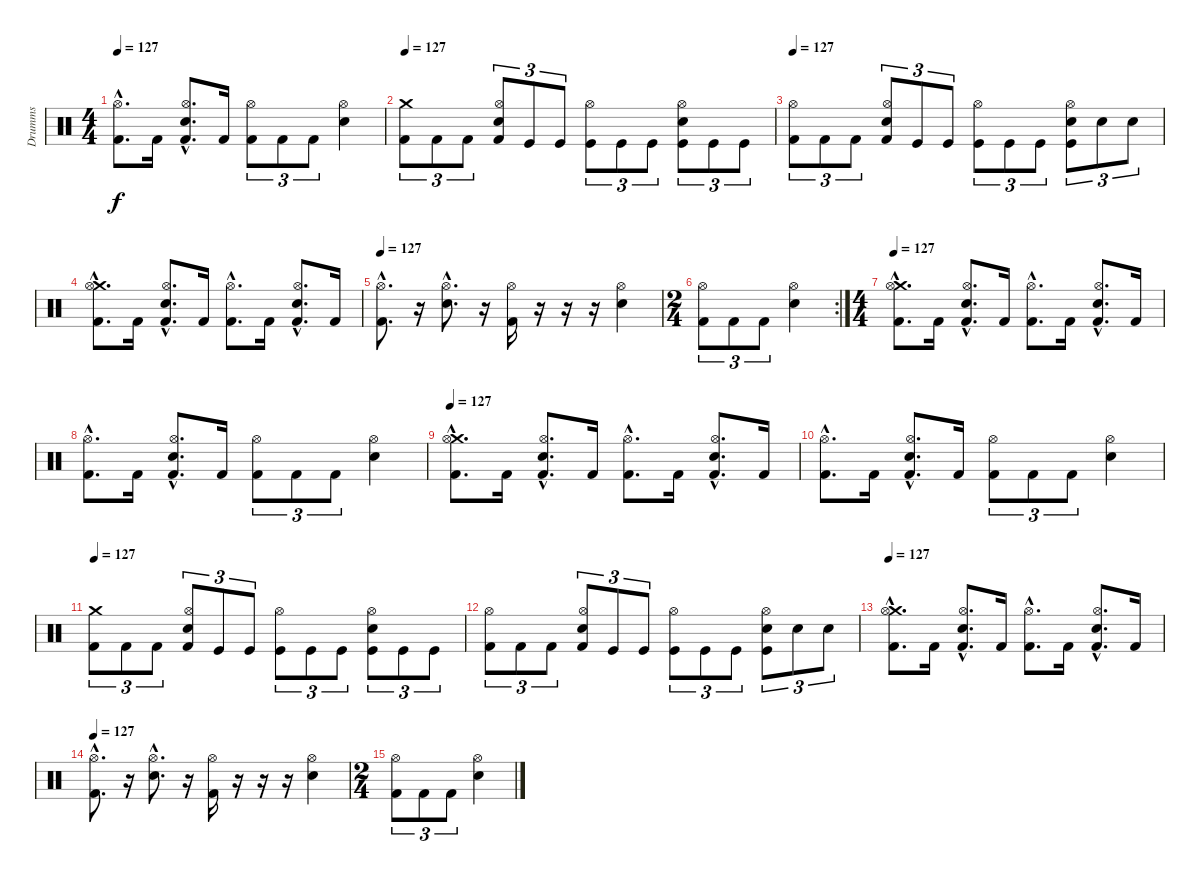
\track ("Drumms" "Drumms") {instrument percussion}
\staff {score}
\articulation defaults
\ts (4 4)
\tempo 127
\clef neutral
\ks c
("Kick (hit) 2"{hac} "Hi-Hat (open)"{hac}).8{d dy f} "Kick (hit) 2".16 ("Kick (hit) 2"{hac} "Snare (hit) 2"{hac} "Hi-Hat (open)"{hac}).8{d} "Kick (hit) 2".16 ("Kick (hit) 2" "Hi-Hat (open)").8{tu (3 2)} "Kick (hit) 2".8{tu (3 2)} "Kick (hit) 2".8{tu (3 2)} ("Snare (hit) 2" "Hi-Hat (open)").4 |
\tempo 127
("Kick (hit) 2" "Crash medium (hit)").8{tu (3 2)} "Kick (hit) 2".8{tu (3 2)} "Kick (hit) 2".8{tu (3 2)} ("Kick (hit) 2" "Snare (hit) 2" "Hi-Hat (open)").8{tu (3 2)} "Kick (hit)".8{tu (3 2)} "Kick (hit)".8{tu (3 2)} ("Kick (hit)" "Hi-Hat (open)").8{tu (3 2)} "Kick (hit)".8{tu (3 2)} "Kick (hit)".8{tu (3 2)} ("Kick (hit)" "Snare (hit) 2" "Hi-Hat (open)").8{tu (3 2)} "Kick (hit)".8{tu (3 2)} "Kick (hit)".8{tu (3 2)} |
\tempo 127
("Kick (hit) 2" "Hi-Hat (open)").8{tu (3 2)} "Kick (hit) 2".8{tu (3 2)} "Kick (hit) 2".8{tu (3 2)} ("Kick (hit) 2" "Snare (hit) 2" "Hi-Hat (open)").8{tu (3 2)} "Kick (hit)".8{tu (3 2)} "Kick (hit)".8{tu (3 2)} ("Kick (hit)" "Hi-Hat (open)").8{tu (3 2)} "Kick (hit)".8{tu (3 2)} "Kick (hit)".8{tu (3 2)} ("Kick (hit)" "Snare (hit) 2" "Hi-Hat (open)").8{tu (3 2)} "Snare (hit) 2".8{tu (3 2)} "Snare (hit) 2".8{tu (3 2)} |
("Kick (hit) 2"{hac} "Crash medium (hit)"{hac} "Hi-Hat (open)"{hac}).8{d} "Kick (hit) 2".16 ("Kick (hit) 2"{hac} "Snare (hit) 2"{hac} "Hi-Hat (open)"{hac}).8{d} "Kick (hit) 2".16 ("Kick (hit) 2"{hac} "Hi-Hat (open)"{hac}).8{d} "Kick (hit) 2".16 ("Kick (hit) 2"{hac} "Snare (hit) 2"{hac} "Hi-Hat (open)"{hac}).8{d} "Kick (hit) 2".16 |
\tempo 127
("Kick (hit) 2"{hac} "Hi-Hat (open)"{hac}).8{d} r.16 ("Snare (hit) 2"{hac} "Hi-Hat (open)"{hac}).8{d} r.16 ("Kick (hit) 2" "Hi-Hat (open)").16 r.16 r.16 r.16 ("Snare (hit) 2" "Hi-Hat (open)").4 |
\rc 2
\ts (2 4)
("Kick (hit) 2" "Hi-Hat (open)").8{tu (3 2)} "Kick (hit) 2".8{tu (3 2)} "Kick (hit) 2".8{tu (3 2)} ("Snare (hit) 2" "Hi-Hat (open)").4 |
\ts (4 4)
\tempo 127
("Kick (hit) 2"{hac} "Crash medium (hit)"{hac} "Hi-Hat (open)"{hac}).8{d} "Kick (hit) 2".16 ("Kick (hit) 2"{hac} "Snare (hit) 2"{hac} "Hi-Hat (open)"{hac}).8{d} "Kick (hit) 2".16 ("Kick (hit) 2"{hac} "Hi-Hat (open)"{hac}).8{d} "Kick (hit) 2".16 ("Kick (hit) 2"{hac} "Snare (hit) 2"{hac} "Hi-Hat (open)"{hac}).8{d} "Kick (hit) 2".16 |
("Kick (hit) 2"{hac} "Hi-Hat (open)"{hac}).8{d} "Kick (hit) 2".16 ("Kick (hit) 2"{hac} "Snare (hit) 2"{hac} "Hi-Hat (open)"{hac}).8{d} "Kick (hit) 2".16 ("Kick (hit) 2" "Hi-Hat (open)").8{tu (3 2)} "Kick (hit) 2".8{tu (3 2)} "Kick (hit) 2".8{tu (3 2)} ("Snare (hit) 2" "Hi-Hat (open)").4 |
\tempo 127
("Kick (hit) 2"{hac} "Crash medium (hit)"{hac} "Hi-Hat (open)"{hac}).8{d} "Kick (hit) 2".16 ("Kick (hit) 2"{hac} "Snare (hit) 2"{hac} "Hi-Hat (open)"{hac}).8{d} "Kick (hit) 2".16 ("Kick (hit) 2"{hac} "Hi-Hat (open)"{hac}).8{d} "Kick (hit) 2".16 ("Kick (hit) 2"{hac} "Snare (hit) 2"{hac} "Hi-Hat (open)"{hac}).8{d} "Kick (hit) 2".16 |
("Kick (hit) 2"{hac} "Hi-Hat (open)"{hac}).8{d} "Kick (hit) 2".16 ("Kick (hit) 2"{hac} "Snare (hit) 2"{hac} "Hi-Hat (open)"{hac}).8{d} "Kick (hit) 2".16 ("Kick (hit) 2" "Hi-Hat (open)").8{tu (3 2)} "Kick (hit) 2".8{tu (3 2)} "Kick (hit) 2".8{tu (3 2)} ("Snare (hit) 2" "Hi-Hat (open)").4 |
\tempo 127
("Kick (hit) 2" "Crash medium (hit)").8{tu (3 2)} "Kick (hit) 2".8{tu (3 2)} "Kick (hit) 2".8{tu (3 2)} ("Kick (hit) 2" "Snare (hit) 2" "Hi-Hat (open)").8{tu (3 2)} "Kick (hit)".8{tu (3 2)} "Kick (hit)".8{tu (3 2)} ("Kick (hit)" "Hi-Hat (open)").8{tu (3 2)} "Kick (hit)".8{tu (3 2)} "Kick (hit)".8{tu (3 2)} ("Kick (hit)" "Snare (hit) 2" "Hi-Hat (open)").8{tu (3 2)} "Kick (hit)".8{tu (3 2)} "Kick (hit)".8{tu (3 2)} |
("Kick (hit) 2" "Hi-Hat (open)").8{tu (3 2)} "Kick (hit) 2".8{tu (3 2)} "Kick (hit) 2".8{tu (3 2)} ("Kick (hit) 2" "Snare (hit) 2" "Hi-Hat (open)").8{tu (3 2)} "Kick (hit)".8{tu (3 2)} "Kick (hit)".8{tu (3 2)} ("Kick (hit)" "Hi-Hat (open)").8{tu (3 2)} "Kick (hit)".8{tu (3 2)} "Kick (hit)".8{tu (3 2)} ("Kick (hit)" "Snare (hit) 2" "Hi-Hat (open)").8{tu (3 2)} "Snare (hit) 2".8{tu (3 2)} "Snare (hit) 2".8{tu (3 2)} |
\tempo 127
("Kick (hit) 2"{hac} "Crash medium (hit)"{hac} "Hi-Hat (open)"{hac}).8{d} "Kick (hit) 2".16 ("Kick (hit) 2"{hac} "Snare (hit) 2"{hac} "Hi-Hat (open)"{hac}).8{d} "Kick (hit) 2".16 ("Kick (hit) 2"{hac} "Hi-Hat (open)"{hac}).8{d} "Kick (hit) 2".16 ("Kick (hit) 2"{hac} "Snare (hit) 2"{hac} "Hi-Hat (open)"{hac}).8{d} "Kick (hit) 2".16 |
\tempo 127
("Kick (hit) 2"{hac} "Hi-Hat (open)"{hac}).8{d} r.16 ("Snare (hit) 2"{hac} "Hi-Hat (open)"{hac}).8{d} r.16 ("Kick (hit) 2" "Hi-Hat (open)").16 r.16 r.16 r.16 ("Snare (hit) 2" "Hi-Hat (open)").4 |
\ts (2 4)
("Kick (hit) 2" "Hi-Hat (open)").8{tu (3 2)} "Kick (hit) 2".8{tu (3 2)} "Kick (hit) 2".8{tu (3 2)} ("Snare (hit) 2" "Hi-Hat (open)").4
